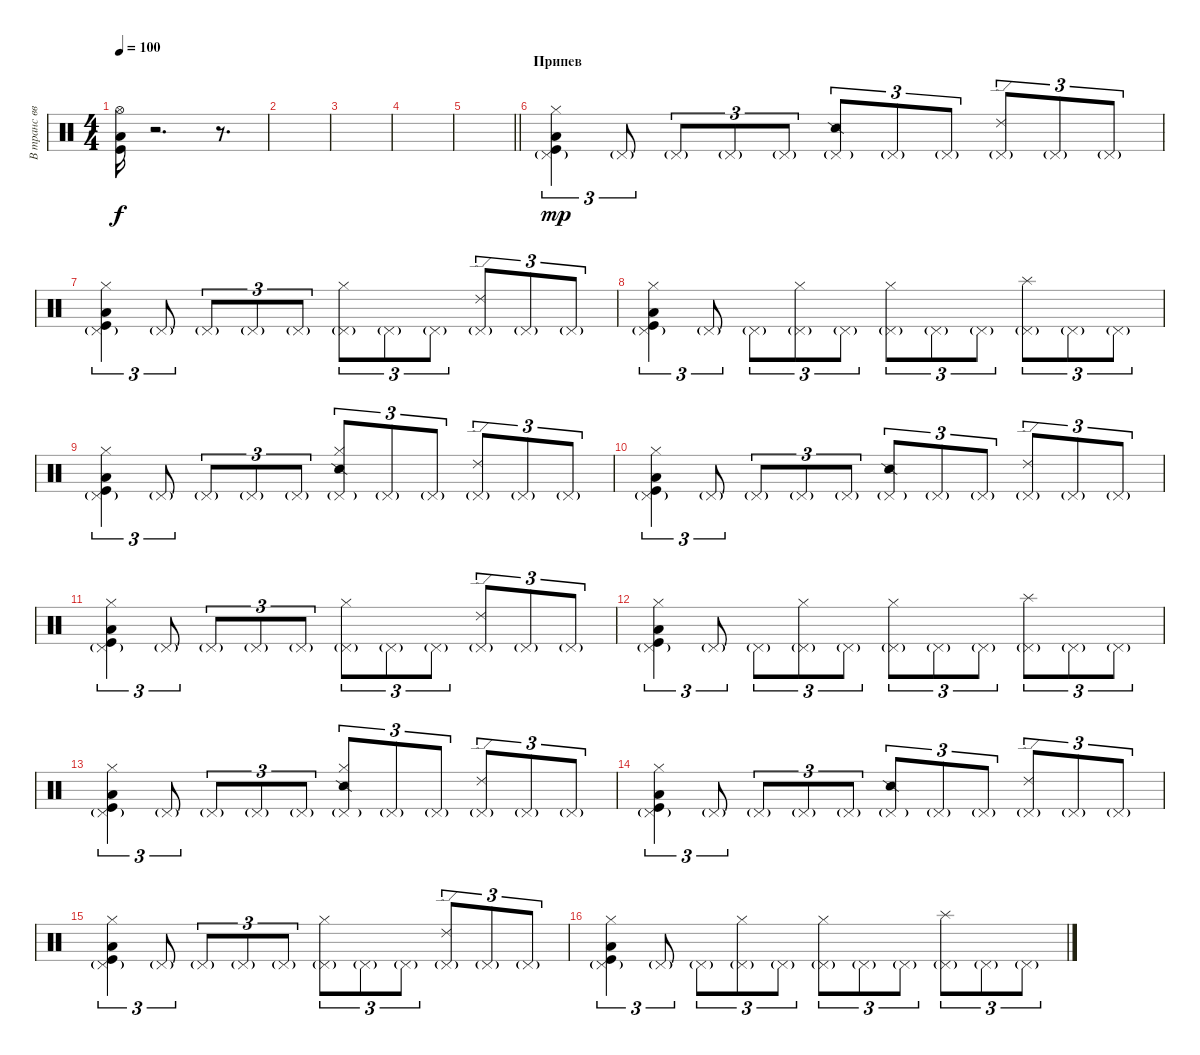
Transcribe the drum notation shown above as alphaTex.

\track ("В транс вводящие" "В транс вв") {instrument percussion}
\staff {score}
\articulation defaults
\ts (4 4)
\tempo 100
\clef neutral
\ks c
("Hi-Hat (open)"{t} "Low Tom (hit)" "Kick (hit)").16{dy f} r.2{d} r.8{d} |
|
|
|
\barLineRight lightlight
|
\section ("" "Припев")
("Pedal Hi-Hat (hit)"{g} "Hi-Hat (closed)" "Low Tom (hit)" "Kick (hit)").4{tu (3 2) dy mp} "Pedal Hi-Hat (hit)"{g}.8{tu (3 2)} "Pedal Hi-Hat (hit)"{g}.8{tu (3 2)} "Pedal Hi-Hat (hit)"{g}.8{tu (3 2)} "Pedal Hi-Hat (hit)"{g}.8{tu (3 2)} ("Pedal Hi-Hat (hit)"{g} "Snare (side stick) 2").8{tu (3 2)} "Pedal Hi-Hat (hit)"{g}.8{tu (3 2)} "Pedal Hi-Hat (hit)"{g}.8{tu (3 2)} ("Pedal Hi-Hat (hit)"{g} "Ride (edge) 2").8{tu (3 2)} "Pedal Hi-Hat (hit)"{g}.8{tu (3 2)} "Pedal Hi-Hat (hit)"{g}.8{tu (3 2)} |
("Pedal Hi-Hat (hit)"{g} "Hi-Hat (closed)" "Low Tom (hit)" "Kick (hit)").4{tu (3 2)} "Pedal Hi-Hat (hit)"{g}.8{tu (3 2)} "Pedal Hi-Hat (hit)"{g}.8{tu (3 2)} "Pedal Hi-Hat (hit)"{g}.8{tu (3 2)} "Pedal Hi-Hat (hit)"{g}.8{tu (3 2)} ("Pedal Hi-Hat (hit)"{g} "Hi-Hat (closed)").8{tu (3 2)} "Pedal Hi-Hat (hit)"{g}.8{tu (3 2)} "Pedal Hi-Hat (hit)"{g}.8{tu (3 2)} ("Pedal Hi-Hat (hit)"{g} "Ride (edge) 2").8{tu (3 2)} "Pedal Hi-Hat (hit)"{g}.8{tu (3 2)} "Pedal Hi-Hat (hit)"{g}.8{tu (3 2)} |
("Pedal Hi-Hat (hit)"{g} "Hi-Hat (closed)" "Low Tom (hit)" "Kick (hit)").4{tu (3 2)} "Pedal Hi-Hat (hit)"{g}.8{tu (3 2)} "Pedal Hi-Hat (hit)"{g}.8{tu (3 2)} ("Pedal Hi-Hat (hit)"{g} "Hi-Hat (closed)").8{tu (3 2)} "Pedal Hi-Hat (hit)"{g}.8{tu (3 2)} ("Pedal Hi-Hat (hit)"{g} "Hi-Hat (closed)").8{tu (3 2)} "Pedal Hi-Hat (hit)"{g}.8{tu (3 2)} "Pedal Hi-Hat (hit)"{g}.8{tu (3 2)} ("Pedal Hi-Hat (hit)"{g} "Splash (hit)").8{tu (3 2)} "Pedal Hi-Hat (hit)"{g}.8{tu (3 2)} "Pedal Hi-Hat (hit)"{g}.8{tu (3 2)} |
("Pedal Hi-Hat (hit)"{g} "Hi-Hat (closed)" "Low Tom (hit)" "Kick (hit)").4{tu (3 2)} "Pedal Hi-Hat (hit)"{g}.8{tu (3 2)} "Pedal Hi-Hat (hit)"{g}.8{tu (3 2)} "Pedal Hi-Hat (hit)"{g}.8{tu (3 2)} "Pedal Hi-Hat (hit)"{g}.8{tu (3 2)} ("Pedal Hi-Hat (hit)"{g} "Snare (side stick) 2" "Hi-Hat (closed)").8{tu (3 2)} "Pedal Hi-Hat (hit)"{g}.8{tu (3 2)} "Pedal Hi-Hat (hit)"{g}.8{tu (3 2)} ("Pedal Hi-Hat (hit)"{g} "Ride (edge) 2").8{tu (3 2)} "Pedal Hi-Hat (hit)"{g}.8{tu (3 2)} "Pedal Hi-Hat (hit)"{g}.8{tu (3 2)} |
("Pedal Hi-Hat (hit)"{g} "Hi-Hat (closed)" "Low Tom (hit)" "Kick (hit)").4{tu (3 2)} "Pedal Hi-Hat (hit)"{g}.8{tu (3 2)} "Pedal Hi-Hat (hit)"{g}.8{tu (3 2)} "Pedal Hi-Hat (hit)"{g}.8{tu (3 2)} "Pedal Hi-Hat (hit)"{g}.8{tu (3 2)} ("Pedal Hi-Hat (hit)"{g} "Snare (side stick) 2").8{tu (3 2)} "Pedal Hi-Hat (hit)"{g}.8{tu (3 2)} "Pedal Hi-Hat (hit)"{g}.8{tu (3 2)} ("Pedal Hi-Hat (hit)"{g} "Ride (edge) 2").8{tu (3 2)} "Pedal Hi-Hat (hit)"{g}.8{tu (3 2)} "Pedal Hi-Hat (hit)"{g}.8{tu (3 2)} |
("Pedal Hi-Hat (hit)"{g} "Hi-Hat (closed)" "Low Tom (hit)" "Kick (hit)").4{tu (3 2)} "Pedal Hi-Hat (hit)"{g}.8{tu (3 2)} "Pedal Hi-Hat (hit)"{g}.8{tu (3 2)} "Pedal Hi-Hat (hit)"{g}.8{tu (3 2)} "Pedal Hi-Hat (hit)"{g}.8{tu (3 2)} ("Pedal Hi-Hat (hit)"{g} "Hi-Hat (closed)").8{tu (3 2)} "Pedal Hi-Hat (hit)"{g}.8{tu (3 2)} "Pedal Hi-Hat (hit)"{g}.8{tu (3 2)} ("Pedal Hi-Hat (hit)"{g} "Ride (edge) 2").8{tu (3 2)} "Pedal Hi-Hat (hit)"{g}.8{tu (3 2)} "Pedal Hi-Hat (hit)"{g}.8{tu (3 2)} |
("Pedal Hi-Hat (hit)"{g} "Hi-Hat (closed)" "Low Tom (hit)" "Kick (hit)").4{tu (3 2)} "Pedal Hi-Hat (hit)"{g}.8{tu (3 2)} "Pedal Hi-Hat (hit)"{g}.8{tu (3 2)} ("Pedal Hi-Hat (hit)"{g} "Hi-Hat (closed)").8{tu (3 2)} "Pedal Hi-Hat (hit)"{g}.8{tu (3 2)} ("Pedal Hi-Hat (hit)"{g} "Hi-Hat (closed)").8{tu (3 2)} "Pedal Hi-Hat (hit)"{g}.8{tu (3 2)} "Pedal Hi-Hat (hit)"{g}.8{tu (3 2)} ("Pedal Hi-Hat (hit)"{g} "Splash (hit)").8{tu (3 2)} "Pedal Hi-Hat (hit)"{g}.8{tu (3 2)} "Pedal Hi-Hat (hit)"{g}.8{tu (3 2)} |
("Pedal Hi-Hat (hit)"{g} "Hi-Hat (closed)" "Low Tom (hit)" "Kick (hit)").4{tu (3 2)} "Pedal Hi-Hat (hit)"{g}.8{tu (3 2)} "Pedal Hi-Hat (hit)"{g}.8{tu (3 2)} "Pedal Hi-Hat (hit)"{g}.8{tu (3 2)} "Pedal Hi-Hat (hit)"{g}.8{tu (3 2)} ("Pedal Hi-Hat (hit)"{g} "Snare (side stick) 2" "Hi-Hat (closed)").8{tu (3 2)} "Pedal Hi-Hat (hit)"{g}.8{tu (3 2)} "Pedal Hi-Hat (hit)"{g}.8{tu (3 2)} ("Pedal Hi-Hat (hit)"{g} "Ride (edge) 2").8{tu (3 2)} "Pedal Hi-Hat (hit)"{g}.8{tu (3 2)} "Pedal Hi-Hat (hit)"{g}.8{tu (3 2)} |
("Pedal Hi-Hat (hit)"{g} "Hi-Hat (closed)" "Low Tom (hit)" "Kick (hit)").4{tu (3 2)} "Pedal Hi-Hat (hit)"{g}.8{tu (3 2)} "Pedal Hi-Hat (hit)"{g}.8{tu (3 2)} "Pedal Hi-Hat (hit)"{g}.8{tu (3 2)} "Pedal Hi-Hat (hit)"{g}.8{tu (3 2)} ("Pedal Hi-Hat (hit)"{g} "Snare (side stick) 2").8{tu (3 2)} "Pedal Hi-Hat (hit)"{g}.8{tu (3 2)} "Pedal Hi-Hat (hit)"{g}.8{tu (3 2)} ("Pedal Hi-Hat (hit)"{g} "Ride (edge) 2").8{tu (3 2)} "Pedal Hi-Hat (hit)"{g}.8{tu (3 2)} "Pedal Hi-Hat (hit)"{g}.8{tu (3 2)} |
("Pedal Hi-Hat (hit)"{g} "Hi-Hat (closed)" "Low Tom (hit)" "Kick (hit)").4{tu (3 2)} "Pedal Hi-Hat (hit)"{g}.8{tu (3 2)} "Pedal Hi-Hat (hit)"{g}.8{tu (3 2)} "Pedal Hi-Hat (hit)"{g}.8{tu (3 2)} "Pedal Hi-Hat (hit)"{g}.8{tu (3 2)} ("Pedal Hi-Hat (hit)"{g} "Hi-Hat (closed)").8{tu (3 2)} "Pedal Hi-Hat (hit)"{g}.8{tu (3 2)} "Pedal Hi-Hat (hit)"{g}.8{tu (3 2)} ("Pedal Hi-Hat (hit)"{g} "Ride (edge) 2").8{tu (3 2)} "Pedal Hi-Hat (hit)"{g}.8{tu (3 2)} "Pedal Hi-Hat (hit)"{g}.8{tu (3 2)} |
("Pedal Hi-Hat (hit)"{g} "Hi-Hat (closed)" "Low Tom (hit)" "Kick (hit)").4{tu (3 2)} "Pedal Hi-Hat (hit)"{g}.8{tu (3 2)} "Pedal Hi-Hat (hit)"{g}.8{tu (3 2)} ("Pedal Hi-Hat (hit)"{g} "Hi-Hat (closed)").8{tu (3 2)} "Pedal Hi-Hat (hit)"{g}.8{tu (3 2)} ("Pedal Hi-Hat (hit)"{g} "Hi-Hat (closed)").8{tu (3 2)} "Pedal Hi-Hat (hit)"{g}.8{tu (3 2)} "Pedal Hi-Hat (hit)"{g}.8{tu (3 2)} ("Pedal Hi-Hat (hit)"{g} "Splash (hit)").8{tu (3 2)} "Pedal Hi-Hat (hit)"{g}.8{tu (3 2)} "Pedal Hi-Hat (hit)"{g}.8{tu (3 2)}
